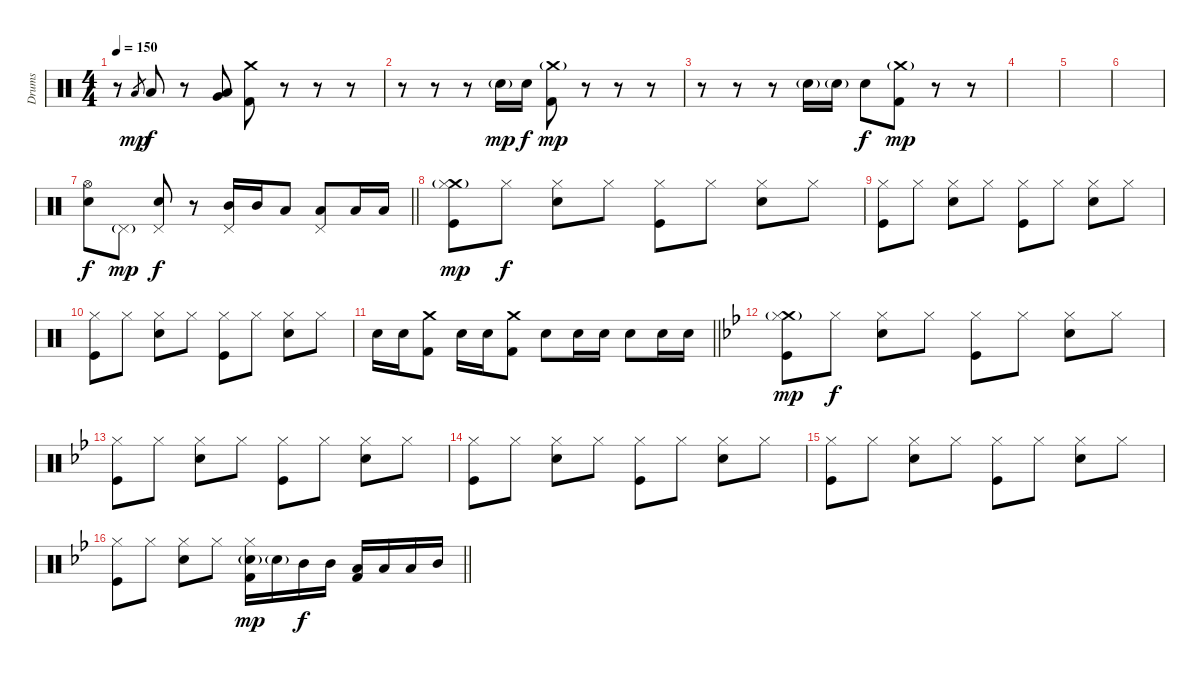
\track ("Drums" "Drums") {instrument percussion}
\staff {score}
\articulation defaults
\ts (4 4)
\tempo 150
\clef neutral
\ks c
r.8{dy f} "Low Tom (hit)".8{gr dy mp} "Low Tom (hit)".8{dy f} r.8 ("Low Tom (hit)" "Very Low Tom (hit)").8 ("Crash medium (hit)" "Kick (hit) 2").8 r.8 r.8 r.8 |
r.8 r.8 r.8 "Electric Snare (hit)"{g}.16{dy mp} "Electric Snare (hit)".16{dy f} ("Crash medium (hit)"{g} "Kick (hit) 2").8{dy mp} r.8 r.8 r.8 |
r.8 r.8 r.8 "Electric Snare (hit)"{g}.16 "Electric Snare (hit)"{g}.16 "Electric Snare (hit)".8{dy f} ("Crash medium (hit)"{g} "Kick (hit) 2").8{dy mp} r.8 r.8 |
|
|
|
\barLineRight lightlight
("Hi-Hat (open)" "Electric Snare (hit)").8{dy f} "Pedal Hi-Hat (hit)"{g}.8{dy mp} ("Pedal Hi-Hat (hit)" "Electric Snare (hit)").8{dy f} r.8 ("Pedal Hi-Hat (hit)" "Mid Tom (hit)").16 "Mid Tom (hit)".16 "Low Tom (hit)".8 ("Pedal Hi-Hat (hit)" "Low Tom (hit)").8 "Low Tom (hit)".16 "Low Tom (hit)".16 |
("Crash medium (hit)"{g} "Hi-Hat (closed)" "Kick (hit)").8{dy mp} "Hi-Hat (closed)".8{dy f} ("Hi-Hat (closed)" "Electric Snare (hit)").8 "Hi-Hat (closed)".8 ("Hi-Hat (closed)" "Kick (hit)").8 "Hi-Hat (closed)".8 ("Hi-Hat (closed)" "Electric Snare (hit)").8 "Hi-Hat (closed)".8 |
("Hi-Hat (closed)" "Kick (hit)").8 "Hi-Hat (closed)".8 ("Hi-Hat (closed)" "Electric Snare (hit)").8 "Hi-Hat (closed)".8 ("Hi-Hat (closed)" "Kick (hit)").8 "Hi-Hat (closed)".8 ("Hi-Hat (closed)" "Electric Snare (hit)").8 "Hi-Hat (closed)".8 |
("Hi-Hat (closed)" "Kick (hit)").8 "Hi-Hat (closed)".8 ("Hi-Hat (closed)" "Electric Snare (hit)").8 "Hi-Hat (closed)".8 ("Hi-Hat (closed)" "Kick (hit)").8 "Hi-Hat (closed)".8 ("Hi-Hat (closed)" "Electric Snare (hit)").8 "Hi-Hat (closed)".8 |
\barLineRight lightlight "Electric Snare (hit)".16 "Electric Snare (hit)".16
("Crash medium (hit)" "Kick (hit) 2").8 "Electric Snare (hit)".16 "Electric Snare (hit)".16 ("Crash medium (hit)" "Kick (hit) 2").8 "Electric Snare (hit)".8 "Electric Snare (hit)".16 "Electric Snare (hit)".16 "Electric Snare (hit)".8 "Electric Snare (hit)".16 "Electric Snare (hit)".16 |
\ks bb
("Crash medium (hit)"{g} "Hi-Hat (closed)" "Kick (hit)").8{dy mp} "Hi-Hat (closed)".8{dy f} ("Hi-Hat (closed)" "Electric Snare (hit)").8 "Hi-Hat (closed)".8 ("Hi-Hat (closed)" "Kick (hit)").8 "Hi-Hat (closed)".8 ("Hi-Hat (closed)" "Electric Snare (hit)").8 "Hi-Hat (closed)".8 |
("Hi-Hat (closed)" "Kick (hit)").8 "Hi-Hat (closed)".8 ("Hi-Hat (closed)" "Electric Snare (hit)").8 "Hi-Hat (closed)".8 ("Hi-Hat (closed)" "Kick (hit)").8 "Hi-Hat (closed)".8 ("Hi-Hat (closed)" "Electric Snare (hit)").8 "Hi-Hat (closed)".8 |
("Hi-Hat (closed)" "Kick (hit)").8 "Hi-Hat (closed)".8 ("Hi-Hat (closed)" "Electric Snare (hit)").8 "Hi-Hat (closed)".8 ("Hi-Hat (closed)" "Kick (hit)").8 "Hi-Hat (closed)".8 ("Hi-Hat (closed)" "Electric Snare (hit)").8 "Hi-Hat (closed)".8 |
("Hi-Hat (closed)" "Kick (hit)").8 "Hi-Hat (closed)".8 ("Hi-Hat (closed)" "Electric Snare (hit)").8 "Hi-Hat (closed)".8 ("Hi-Hat (closed)" "Kick (hit)").8 "Hi-Hat (closed)".8 ("Hi-Hat (closed)" "Electric Snare (hit)").8 "Hi-Hat (closed)".8 |
\barLineRight lightlight
("Hi-Hat (closed)" "Kick (hit)").8 "Hi-Hat (closed)".8 ("Hi-Hat (closed)" "Electric Snare (hit)").8 "Hi-Hat (closed)".8 ("Hi-Hat (closed)" "Kick (hit) 2" "Electric Snare (hit)"{g}).16{dy mp} "Electric Snare (hit)"{g}.16 "Mid Tom (hit)".16{dy f} "Mid Tom (hit)".16 ("Low Tom (hit)" "Kick (hit) 2").16 "Low Tom (hit)".16 "Low Tom (hit)".16 "Mid Tom (hit)".16
